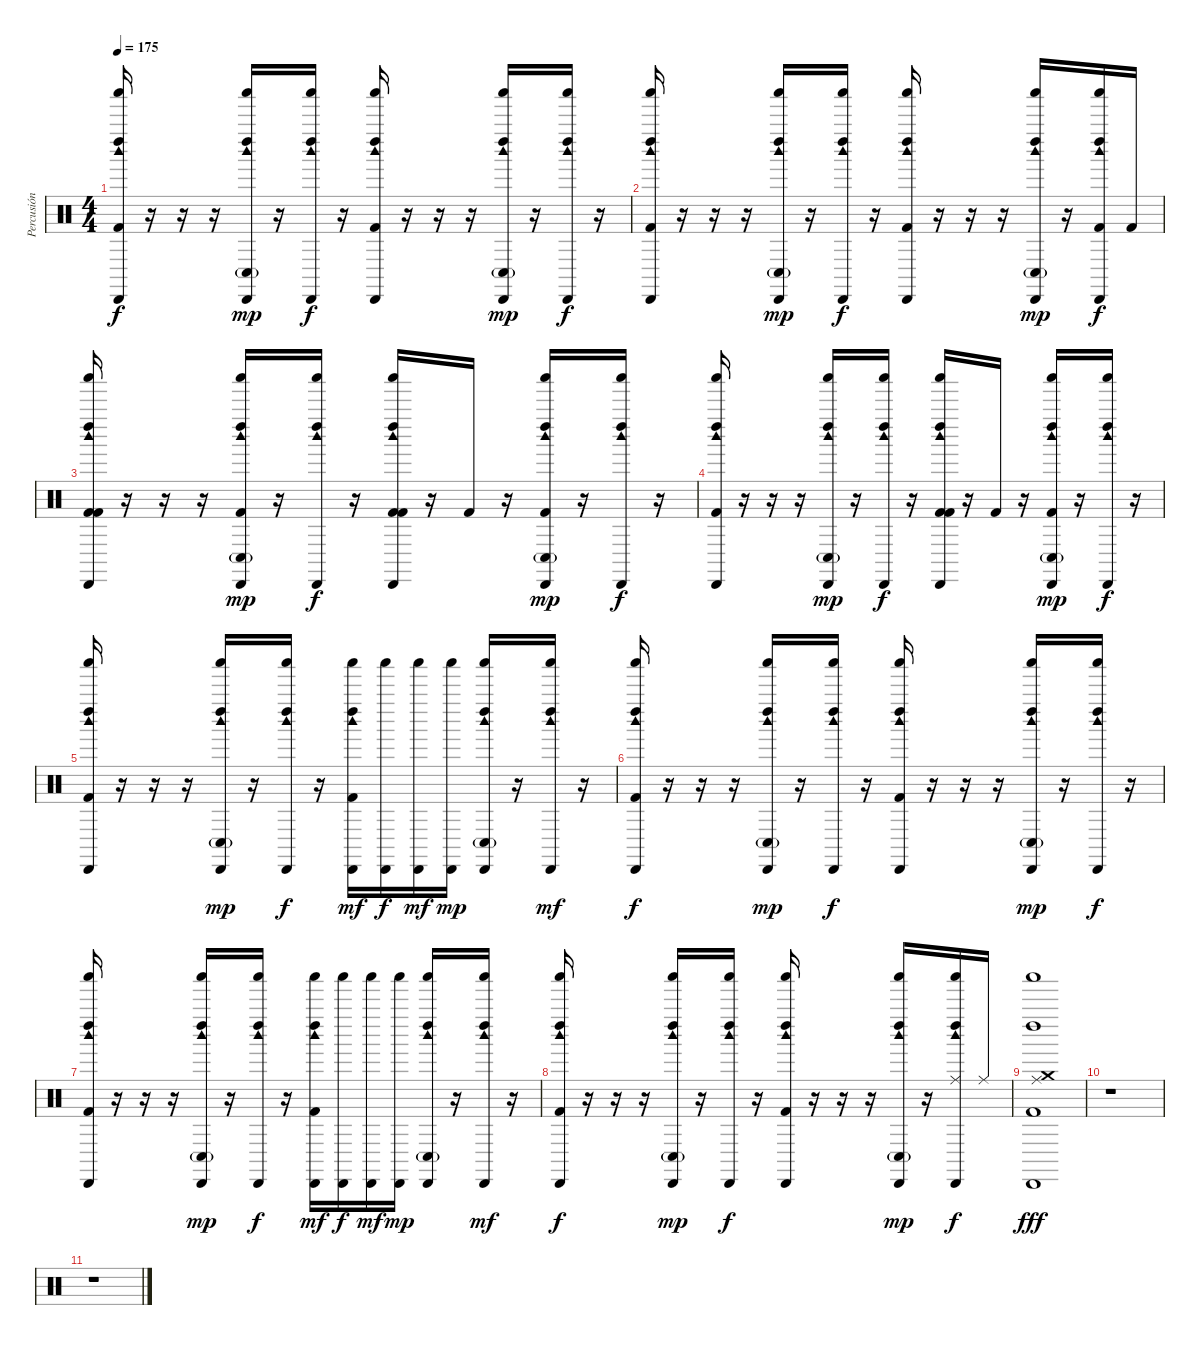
\track ("Percusión" "Percusión") {instrument percussion}
\staff {score}
\articulation defaults
\ts (4 4)
\tempo 175
\clef neutral
\ks c
("Cabasa (hit)" "Shaker (hit)" "Kick (hit) 2" "Left Maraca (hit)" "Woodblock high (hit)").16{dy f} r.16 r.16 r.16 ("Cabasa (hit)" "Shaker (hit)" "Conga low (hit)"{g} "Left Maraca (hit)" "Woodblock high (hit)").16{dy mp} r.16 ("Cabasa (hit)" "Shaker (hit)" "Left Maraca (hit)" "Woodblock high (hit)").16{dy f} r.16 ("Cabasa (hit)" "Shaker (hit)" "Kick (hit) 2" "Left Maraca (hit)" "Woodblock high (hit)").16 r.16 r.16 r.16 ("Cabasa (hit)" "Shaker (hit)" "Conga low (hit)"{g} "Left Maraca (hit)" "Woodblock high (hit)").16{dy mp} r.16 ("Cabasa (hit)" "Shaker (hit)" "Left Maraca (hit)" "Woodblock high (hit)").16{dy f} r.16 |
("Cabasa (hit)" "Shaker (hit)" "Kick (hit) 2" "Left Maraca (hit)" "Woodblock high (hit)").16 r.16 r.16 r.16 ("Cabasa (hit)" "Shaker (hit)" "Conga low (hit)"{g} "Left Maraca (hit)" "Woodblock high (hit)").16{dy mp} r.16 ("Cabasa (hit)" "Shaker (hit)" "Left Maraca (hit)" "Woodblock high (hit)").16{dy f} r.16 ("Cabasa (hit)" "Shaker (hit)" "Kick (hit) 2" "Left Maraca (hit)" "Woodblock high (hit)").16 r.16 r.16 r.16 ("Cabasa (hit)" "Shaker (hit)" "Conga low (hit)"{g} "Left Maraca (hit)" "Woodblock high (hit)").16{dy mp} r.16 ("Kick (hit) 2" "Cabasa (hit)" "Shaker (hit)" "Left Maraca (hit)" "Woodblock high (hit)").16{dy f} "Kick (hit) 2".16 |
("Kick (hit) 2" "Cabasa (hit)" "Shaker (hit)" "Kick (hit) 2" "Left Maraca (hit)" "Woodblock high (hit)").16 r.16 r.16 r.16 ("Kick (hit) 2" "Cabasa (hit)" "Shaker (hit)" "Conga low (hit)"{g} "Left Maraca (hit)" "Woodblock high (hit)").16{dy mp} r.16 ("Cabasa (hit)" "Shaker (hit)" "Left Maraca (hit)" "Woodblock high (hit)").16{dy f} r.16 ("Kick (hit) 2" "Cabasa (hit)" "Shaker (hit)" "Kick (hit) 2" "Left Maraca (hit)" "Woodblock high (hit)").16 r.16 "Kick (hit) 2".16 r.16 ("Kick (hit) 2" "Cabasa (hit)" "Shaker (hit)" "Conga low (hit)"{g} "Left Maraca (hit)" "Woodblock high (hit)").16{dy mp} r.16 ("Cabasa (hit)" "Shaker (hit)" "Left Maraca (hit)" "Woodblock high (hit)").16{dy f} r.16 |
("Cabasa (hit)" "Shaker (hit)" "Kick (hit) 2" "Left Maraca (hit)" "Woodblock high (hit)").16 r.16 r.16 r.16 ("Cabasa (hit)" "Shaker (hit)" "Conga low (hit)"{g} "Left Maraca (hit)" "Woodblock high (hit)").16{dy mp} r.16 ("Cabasa (hit)" "Shaker (hit)" "Left Maraca (hit)" "Woodblock high (hit)").16{dy f} r.16 ("Kick (hit) 2" "Cabasa (hit)" "Shaker (hit)" "Kick (hit) 2" "Left Maraca (hit)" "Woodblock high (hit)").16 r.16 "Kick (hit) 2".16 r.16 ("Kick (hit) 2" "Cabasa (hit)" "Shaker (hit)" "Conga low (hit)"{g} "Left Maraca (hit)" "Woodblock high (hit)").16{dy mp} r.16 ("Cabasa (hit)" "Shaker (hit)" "Left Maraca (hit)" "Woodblock high (hit)").16{dy f} r.16 |
("Cabasa (hit)" "Shaker (hit)" "Kick (hit) 2" "Left Maraca (hit)" "Woodblock high (hit)").16 r.16 r.16 r.16 ("Cabasa (hit)" "Shaker (hit)" "Conga low (hit)"{g} "Left Maraca (hit)" "Woodblock high (hit)").16{dy mp} r.16 ("Cabasa (hit)" "Shaker (hit)" "Left Maraca (hit)" "Woodblock high (hit)").16{dy f} r.16 ("Cabasa (hit)" "Shaker (hit)" "Left Maraca (hit)" "Woodblock high (hit)" "Kick (hit) 2").16{dy mf} ("Cabasa (hit)" "Shaker (hit)").16{dy f} ("Cabasa (hit)" "Shaker (hit)").16{dy mf} ("Cabasa (hit)" "Shaker (hit)").16{dy mp} ("Cabasa (hit)" "Shaker (hit)" "Left Maraca (hit)" "Woodblock high (hit)" "Conga low (hit)"{g}).16 r.16 ("Cabasa (hit)" "Shaker (hit)" "Left Maraca (hit)" "Woodblock high (hit)").16{dy mf} r.16 |
("Cabasa (hit)" "Shaker (hit)" "Kick (hit) 2" "Left Maraca (hit)" "Woodblock high (hit)").16{dy f} r.16 r.16 r.16 ("Cabasa (hit)" "Shaker (hit)" "Conga low (hit)"{g} "Left Maraca (hit)" "Woodblock high (hit)").16{dy mp} r.16 ("Cabasa (hit)" "Shaker (hit)" "Left Maraca (hit)" "Woodblock high (hit)").16{dy f} r.16 ("Cabasa (hit)" "Shaker (hit)" "Kick (hit) 2" "Left Maraca (hit)" "Woodblock high (hit)").16 r.16 r.16 r.16 ("Cabasa (hit)" "Shaker (hit)" "Conga low (hit)"{g} "Left Maraca (hit)" "Woodblock high (hit)").16{dy mp} r.16 ("Cabasa (hit)" "Shaker (hit)" "Left Maraca (hit)" "Woodblock high (hit)").16{dy f} r.16 |
("Cabasa (hit)" "Shaker (hit)" "Kick (hit) 2" "Left Maraca (hit)" "Woodblock high (hit)").16 r.16 r.16 r.16 ("Cabasa (hit)" "Shaker (hit)" "Conga low (hit)"{g} "Left Maraca (hit)" "Woodblock high (hit)").16{dy mp} r.16 ("Cabasa (hit)" "Shaker (hit)" "Left Maraca (hit)" "Woodblock high (hit)").16{dy f} r.16 ("Cabasa (hit)" "Shaker (hit)" "Left Maraca (hit)" "Woodblock high (hit)" "Kick (hit) 2").16{dy mf} ("Cabasa (hit)" "Shaker (hit)").16{dy f} ("Cabasa (hit)" "Shaker (hit)").16{dy mf} ("Cabasa (hit)" "Shaker (hit)").16{dy mp} ("Cabasa (hit)" "Shaker (hit)" "Left Maraca (hit)" "Woodblock high (hit)" "Conga low (hit)"{g}).16 r.16 ("Cabasa (hit)" "Shaker (hit)" "Left Maraca (hit)" "Woodblock high (hit)").16{dy mf} r.16 |
("Cabasa (hit)" "Shaker (hit)" "Kick (hit) 2" "Left Maraca (hit)" "Woodblock high (hit)").16{dy f} r.16 r.16 r.16 ("Cabasa (hit)" "Shaker (hit)" "Conga low (hit)"{g} "Left Maraca (hit)" "Woodblock high (hit)").16{dy mp} r.16 ("Cabasa (hit)" "Shaker (hit)" "Left Maraca (hit)" "Woodblock high (hit)").16{dy f} r.16 ("Cabasa (hit)" "Shaker (hit)" "Kick (hit) 2" "Left Maraca (hit)" "Woodblock high (hit)").16 r.16 r.16 r.16 ("Cabasa (hit)" "Shaker (hit)" "Conga low (hit)"{g} "Left Maraca (hit)" "Woodblock high (hit)").16{dy mp} r.16 ("Ride (middle)" "Cabasa (hit)" "Shaker (hit)" "Left Maraca (hit)" "Woodblock high (hit)").16{dy f} "Ride (middle)".16 |
("Cabasa (hit)" "Left Maraca (hit)" "Crash medium (hit)" "Shaker (hit)" "Ride (middle)" "Kick (hit) 2").1{dy fff} |
r.1 |
r.1
